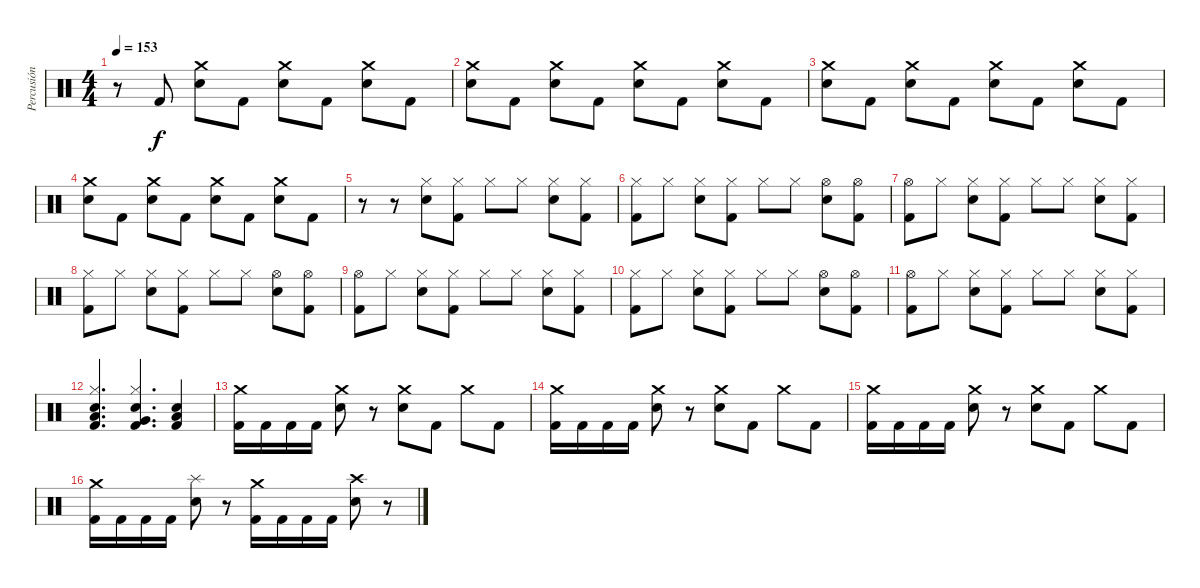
\track ("Percusión" "Percusión") {instrument percussion}
\staff {score}
\articulation defaults
\ts (4 4)
\tempo 153
\clef neutral
\ks c
r.8{dy f} "Kick (hit) 2".8 ("Crash medium (hit)" "Electric Snare (hit)").8 "Kick (hit) 2".8 ("Crash medium (hit)" "Electric Snare (hit)").8 "Kick (hit) 2".8 ("Crash medium (hit)" "Electric Snare (hit)").8 "Kick (hit) 2".8 |
("Crash medium (hit)" "Electric Snare (hit)").8 "Kick (hit) 2".8 ("Crash medium (hit)" "Electric Snare (hit)").8 "Kick (hit) 2".8 ("Crash medium (hit)" "Electric Snare (hit)").8 "Kick (hit) 2".8 ("Crash medium (hit)" "Electric Snare (hit)").8 "Kick (hit) 2".8 |
("Crash medium (hit)" "Electric Snare (hit)").8 "Kick (hit) 2".8 ("Crash medium (hit)" "Electric Snare (hit)").8 "Kick (hit) 2".8 ("Crash medium (hit)" "Electric Snare (hit)").8 "Kick (hit) 2".8 ("Crash medium (hit)" "Electric Snare (hit)").8 "Kick (hit) 2".8 |
("Crash medium (hit)" "Electric Snare (hit)").8 "Kick (hit) 2".8 ("Crash medium (hit)" "Electric Snare (hit)").8 "Kick (hit) 2".8 ("Crash medium (hit)" "Electric Snare (hit)").8 "Kick (hit) 2".8 ("Crash medium (hit)" "Electric Snare (hit)").8 "Kick (hit) 2".8 |
r.8 r.8 ("Hi-Hat (closed)" "Electric Snare (hit)").8 ("Hi-Hat (closed)" "Kick (hit) 2").8 "Hi-Hat (closed)".8 "Hi-Hat (closed)".8 ("Hi-Hat (closed)" "Electric Snare (hit)").8 ("Hi-Hat (closed)" "Kick (hit) 2").8 |
("Hi-Hat (closed)" "Kick (hit) 2").8 "Hi-Hat (closed)".8 ("Hi-Hat (closed)" "Electric Snare (hit)").8 ("Hi-Hat (closed)" "Kick (hit) 2").8 "Hi-Hat (closed)".8 "Hi-Hat (closed)".8 ("Hi-Hat (open)" "Electric Snare (hit)").8 ("Hi-Hat (open)" "Kick (hit) 2").8 |
("Hi-Hat (open)" "Kick (hit) 2").8 "Hi-Hat (closed)".8 ("Hi-Hat (closed)" "Electric Snare (hit)").8 ("Hi-Hat (closed)" "Kick (hit) 2").8 "Hi-Hat (closed)".8 "Hi-Hat (closed)".8 ("Hi-Hat (closed)" "Electric Snare (hit)").8 ("Hi-Hat (closed)" "Kick (hit) 2").8 |
("Hi-Hat (closed)" "Kick (hit) 2").8 "Hi-Hat (closed)".8 ("Hi-Hat (closed)" "Electric Snare (hit)").8 ("Hi-Hat (closed)" "Kick (hit) 2").8 "Hi-Hat (closed)".8 "Hi-Hat (closed)".8 ("Hi-Hat (open)" "Electric Snare (hit)").8 ("Hi-Hat (open)" "Kick (hit) 2").8 |
("Hi-Hat (open)" "Kick (hit) 2").8 "Hi-Hat (closed)".8 ("Hi-Hat (closed)" "Electric Snare (hit)").8 ("Hi-Hat (closed)" "Kick (hit) 2").8 "Hi-Hat (closed)".8 "Hi-Hat (closed)".8 ("Hi-Hat (closed)" "Electric Snare (hit)").8 ("Hi-Hat (closed)" "Kick (hit) 2").8 |
("Hi-Hat (closed)" "Kick (hit) 2").8 "Hi-Hat (closed)".8 ("Hi-Hat (closed)" "Electric Snare (hit)").8 ("Hi-Hat (closed)" "Kick (hit) 2").8 "Hi-Hat (closed)".8 "Hi-Hat (closed)".8 ("Hi-Hat (open)" "Electric Snare (hit)").8 ("Hi-Hat (open)" "Kick (hit) 2").8 |
("Hi-Hat (open)" "Kick (hit) 2").8 "Hi-Hat (closed)".8 ("Hi-Hat (closed)" "Electric Snare (hit)").8 ("Hi-Hat (closed)" "Kick (hit) 2").8 "Hi-Hat (closed)".8 "Hi-Hat (closed)".8 ("Hi-Hat (closed)" "Electric Snare (hit)").8 ("Hi-Hat (closed)" "Kick (hit) 2").8 |
("Hi-Hat (closed)" "Low Tom (hit)" "Electric Snare (hit)" "Kick (hit) 2").4{d} ("Hi-Hat (closed)" "Very Low Tom (hit)" "Electric Snare (hit)" "Kick (hit) 2").4{d} ("Low Floor Tom (hit)" "Electric Snare (hit)" "Kick (hit) 2").4 |
("Crash medium (hit)" "Kick (hit) 2").16 "Kick (hit) 2".16 "Kick (hit) 2".16 "Kick (hit) 2".16 ("Crash medium (hit)" "Electric Snare (hit)").8 r.8 ("Crash medium (hit)" "Electric Snare (hit)").8 "Kick (hit) 2".8 "Crash medium (hit)".8 "Kick (hit) 2".8 |
("Crash medium (hit)" "Kick (hit) 2").16 "Kick (hit) 2".16 "Kick (hit) 2".16 "Kick (hit) 2".16 ("Crash medium (hit)" "Electric Snare (hit)").8 r.8 ("Crash medium (hit)" "Electric Snare (hit)").8 "Kick (hit) 2".8 "Crash medium (hit)".8 "Kick (hit) 2".8 |
("Crash medium (hit)" "Kick (hit) 2").16 "Kick (hit) 2".16 "Kick (hit) 2".16 "Kick (hit) 2".16 ("Crash medium (hit)" "Electric Snare (hit)").8 r.8 ("Crash medium (hit)" "Electric Snare (hit)").8 "Kick (hit) 2".8 "Crash medium (hit)".8 "Kick (hit) 2".8 |
("Crash medium (hit)" "Kick (hit) 2").16 "Kick (hit) 2".16 "Kick (hit) 2".16 "Kick (hit) 2".16 ("Splash (hit)" "Electric Snare (hit)").8 r.8 ("Crash medium (hit)" "Kick (hit) 2").16 "Kick (hit) 2".16 "Kick (hit) 2".16 "Kick (hit) 2".16 ("Crash high (hit)" "Electric Snare (hit)").8 r.8
